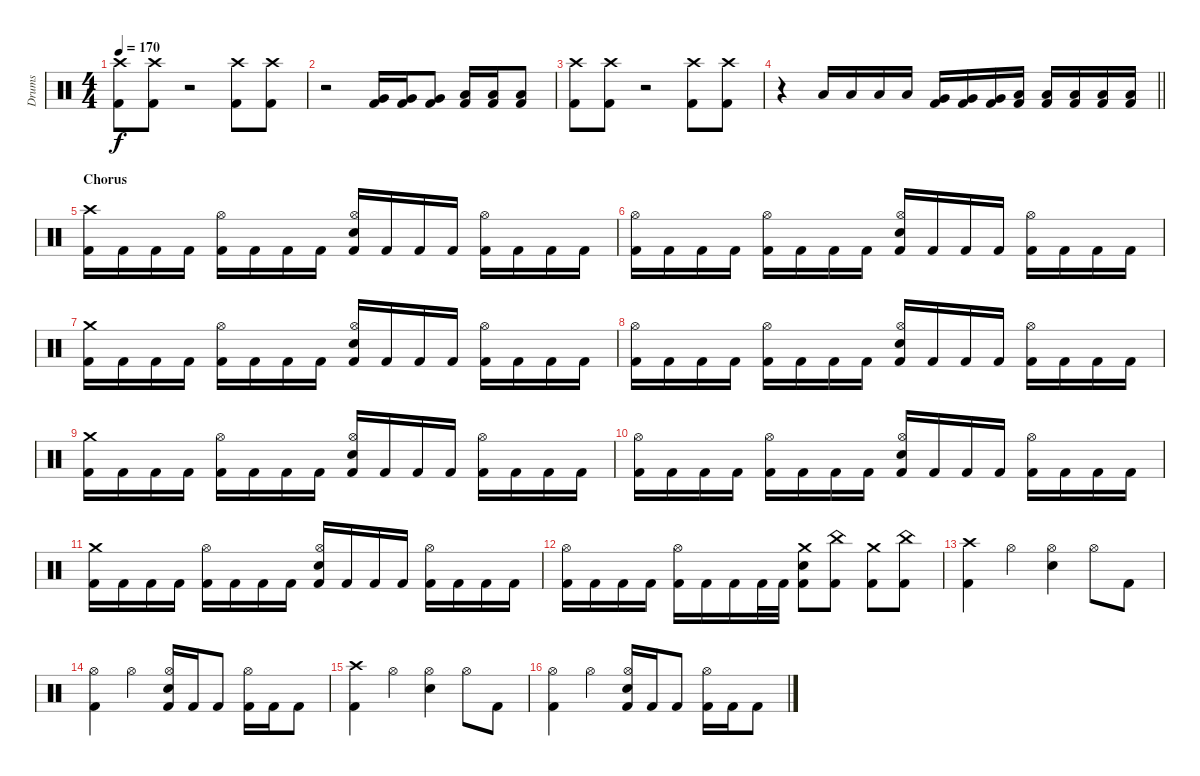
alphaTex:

\track ("Drums" "Drums") {instrument percussion}
\staff {score}
\articulation defaults
\ts (4 4)
\tempo 170
\clef neutral
\ks c
("Crash high (hit)" "Kick (hit) 2").8{dy f} ("Crash high (hit)" "Kick (hit) 2").8 r.2 ("Crash high (hit)" "Kick (hit) 2").8 ("Crash high (hit)" "Kick (hit) 2").8 |
r.2 ("Very Low Tom (hit)" "Kick (hit) 2").16 ("Very Low Tom (hit)" "Kick (hit) 2").16 ("Very Low Tom (hit)" "Kick (hit) 2").8 ("Low Floor Tom (hit)" "Kick (hit) 2").16 ("Low Floor Tom (hit)" "Kick (hit) 2").16 ("Low Floor Tom (hit)" "Kick (hit) 2").8 |
("Crash high (hit)" "Kick (hit) 2").8 ("Crash high (hit)" "Kick (hit) 2").8 r.2 ("Crash high (hit)" "Kick (hit) 2").8 ("Crash high (hit)" "Kick (hit) 2").8 |
\barLineRight lightlight
r.4 "Low Tom (hit)".16 "Low Tom (hit)".16 "Low Tom (hit)".16 "Low Tom (hit)".16 ("Very Low Tom (hit)" "Kick (hit) 2").16 ("Very Low Tom (hit)" "Kick (hit) 2").16 ("Very Low Tom (hit)" "Kick (hit) 2").16 ("Low Floor Tom (hit)" "Kick (hit) 2").16 ("Low Floor Tom (hit)" "Kick (hit) 2").16 ("Low Floor Tom (hit)" "Kick (hit) 2").16 ("Low Floor Tom (hit)" "Kick (hit) 2").16 ("Low Floor Tom (hit)" "Kick (hit) 2").16 |
\section ("" "Chorus")
("Crash high (hit)" "Kick (hit) 2").16 "Kick (hit) 2".16 "Kick (hit) 2".16 "Kick (hit) 2".16 ("Hi-Hat (open)" "Kick (hit) 2").16 "Kick (hit) 2".16 "Kick (hit) 2".16 "Kick (hit) 2".16 ("Hi-Hat (open)" "Snare (hit) 2" "Kick (hit) 2").16 "Kick (hit) 2".16 "Kick (hit) 2".16 "Kick (hit) 2".16 ("Hi-Hat (open)" "Kick (hit) 2").16 "Kick (hit) 2".16 "Kick (hit) 2".16 "Kick (hit) 2".16 |
("Hi-Hat (open)" "Kick (hit) 2").16 "Kick (hit) 2".16 "Kick (hit) 2".16 "Kick (hit) 2".16 ("Hi-Hat (open)" "Kick (hit) 2").16 "Kick (hit) 2".16 "Kick (hit) 2".16 "Kick (hit) 2".16 ("Hi-Hat (open)" "Snare (hit) 2" "Kick (hit) 2").16 "Kick (hit) 2".16 "Kick (hit) 2".16 "Kick (hit) 2".16 ("Hi-Hat (open)" "Kick (hit) 2").16 "Kick (hit) 2".16 "Kick (hit) 2".16 "Kick (hit) 2".16 |
("Crash medium (hit)" "Kick (hit) 2").16 "Kick (hit) 2".16 "Kick (hit) 2".16 "Kick (hit) 2".16 ("Hi-Hat (open)" "Kick (hit) 2").16 "Kick (hit) 2".16 "Kick (hit) 2".16 "Kick (hit) 2".16 ("Hi-Hat (open)" "Snare (hit) 2" "Kick (hit) 2").16 "Kick (hit) 2".16 "Kick (hit) 2".16 "Kick (hit) 2".16 ("Hi-Hat (open)" "Kick (hit) 2").16 "Kick (hit) 2".16 "Kick (hit) 2".16 "Kick (hit) 2".16 |
("Hi-Hat (open)" "Kick (hit) 2").16 "Kick (hit) 2".16 "Kick (hit) 2".16 "Kick (hit) 2".16 ("Hi-Hat (open)" "Kick (hit) 2").16 "Kick (hit) 2".16 "Kick (hit) 2".16 "Kick (hit) 2".16 ("Hi-Hat (open)" "Snare (hit) 2" "Kick (hit) 2").16 "Kick (hit) 2".16 "Kick (hit) 2".16 "Kick (hit) 2".16 ("Hi-Hat (open)" "Kick (hit) 2").16 "Kick (hit) 2".16 "Kick (hit) 2".16 "Kick (hit) 2".16 |
("Crash medium (hit)" "Kick (hit) 2").16 "Kick (hit) 2".16 "Kick (hit) 2".16 "Kick (hit) 2".16 ("Hi-Hat (open)" "Kick (hit) 2").16 "Kick (hit) 2".16 "Kick (hit) 2".16 "Kick (hit) 2".16 ("Hi-Hat (open)" "Snare (hit) 2" "Kick (hit) 2").16 "Kick (hit) 2".16 "Kick (hit) 2".16 "Kick (hit) 2".16 ("Hi-Hat (open)" "Kick (hit) 2").16 "Kick (hit) 2".16 "Kick (hit) 2".16 "Kick (hit) 2".16 |
("Hi-Hat (open)" "Kick (hit) 2").16 "Kick (hit) 2".16 "Kick (hit) 2".16 "Kick (hit) 2".16 ("Hi-Hat (open)" "Kick (hit) 2").16 "Kick (hit) 2".16 "Kick (hit) 2".16 "Kick (hit) 2".16 ("Hi-Hat (open)" "Snare (hit) 2" "Kick (hit) 2").16 "Kick (hit) 2".16 "Kick (hit) 2".16 "Kick (hit) 2".16 ("Hi-Hat (open)" "Kick (hit) 2").16 "Kick (hit) 2".16 "Kick (hit) 2".16 "Kick (hit) 2".16 |
("Crash medium (hit)" "Kick (hit) 2").16 "Kick (hit) 2".16 "Kick (hit) 2".16 "Kick (hit) 2".16 ("Hi-Hat (open)" "Kick (hit) 2").16 "Kick (hit) 2".16 "Kick (hit) 2".16 "Kick (hit) 2".16 ("Hi-Hat (open)" "Snare (hit) 2" "Kick (hit) 2").16 "Kick (hit) 2".16 "Kick (hit) 2".16 "Kick (hit) 2".16 ("Hi-Hat (open)" "Kick (hit) 2").16 "Kick (hit) 2".16 "Kick (hit) 2".16 "Kick (hit) 2".16 |
("Hi-Hat (open)" "Kick (hit) 2").16 "Kick (hit) 2".16 "Kick (hit) 2".16 "Kick (hit) 2".16 ("Hi-Hat (open)" "Kick (hit) 2").16 "Kick (hit) 2".16 "Kick (hit) 2".16 "Kick (hit) 2".32 "Kick (hit) 2".32 ("Crash medium (hit)" "Snare (hit) 2" "Kick (hit) 2").8 ("China (hit)" "Kick (hit) 2").8 ("Crash medium (hit)" "Kick (hit) 2").8 ("China (hit)" "Kick (hit) 2").8 |
("Crash high (hit)" "Kick (hit) 2").4 "Hi-Hat (open)".4 ("Hi-Hat (open)" "Snare (hit) 2").4 "Hi-Hat (open)".8 "Kick (hit) 2".8 |
("Hi-Hat (open)" "Kick (hit) 2").4 "Hi-Hat (open)".4 ("Hi-Hat (open)" "Snare (hit) 2" "Kick (hit) 2").16 "Kick (hit) 2".16 "Kick (hit) 2".8 ("Hi-Hat (open)" "Kick (hit) 2").16 "Kick (hit) 2".16 "Kick (hit) 2".8 |
("Crash high (hit)" "Kick (hit) 2").4 "Hi-Hat (open)".4 ("Hi-Hat (open)" "Snare (hit) 2").4 "Hi-Hat (open)".8 "Kick (hit) 2".8 |
("Hi-Hat (open)" "Kick (hit) 2").4 "Hi-Hat (open)".4 ("Hi-Hat (open)" "Snare (hit) 2" "Kick (hit) 2").16 "Kick (hit) 2".16 "Kick (hit) 2".8 ("Hi-Hat (open)" "Kick (hit) 2").16 "Kick (hit) 2".16 "Kick (hit) 2".8
